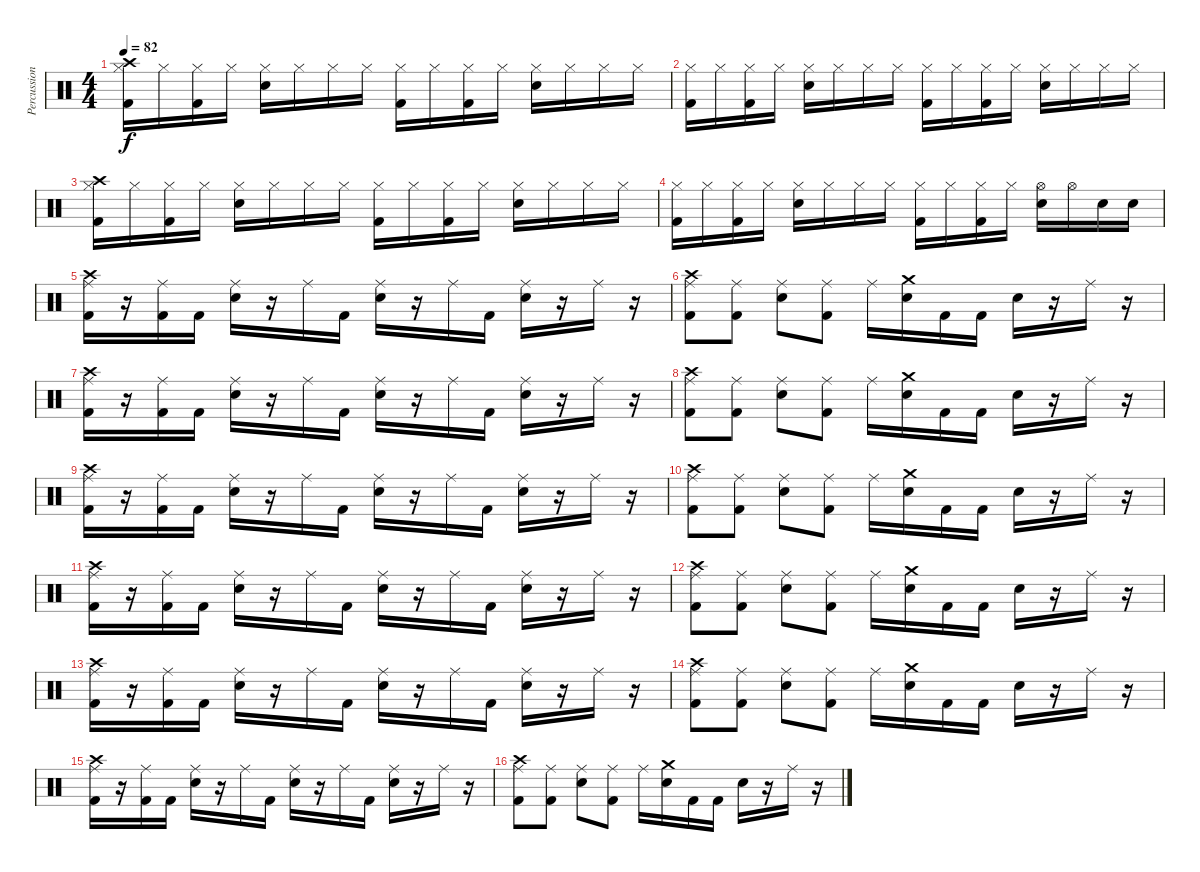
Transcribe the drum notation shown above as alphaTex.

\track ("Percussions" "Percussion") {instrument percussion}
\staff {score}
\articulation defaults
\ts (4 4)
\tempo 82
\clef neutral
\ks c
("Crash high (hit)" "Hi-Hat (closed)" "Kick (hit) 2").16{dy f} "Hi-Hat (closed)".16 ("Hi-Hat (closed)" "Kick (hit) 2").16 "Hi-Hat (closed)".16 ("Hi-Hat (closed)" "Electric Snare (hit)").16 "Hi-Hat (closed)".16 "Hi-Hat (closed)".16 "Hi-Hat (closed)".16 ("Hi-Hat (closed)" "Kick (hit) 2").16 "Hi-Hat (closed)".16 ("Hi-Hat (closed)" "Kick (hit) 2").16 "Hi-Hat (closed)".16 ("Hi-Hat (closed)" "Electric Snare (hit)").16 "Hi-Hat (closed)".16 "Hi-Hat (closed)".16 "Hi-Hat (closed)".16 |
("Hi-Hat (closed)" "Kick (hit) 2").16 "Hi-Hat (closed)".16 ("Hi-Hat (closed)" "Kick (hit) 2").16 "Hi-Hat (closed)".16 ("Hi-Hat (closed)" "Electric Snare (hit)").16 "Hi-Hat (closed)".16 "Hi-Hat (closed)".16 "Hi-Hat (closed)".16 ("Hi-Hat (closed)" "Kick (hit) 2").16 "Hi-Hat (closed)".16 ("Hi-Hat (closed)" "Kick (hit) 2").16 "Hi-Hat (closed)".16 ("Hi-Hat (closed)" "Electric Snare (hit)").16 "Hi-Hat (closed)".16 "Hi-Hat (closed)".16 "Hi-Hat (closed)".16 |
("Crash high (hit)" "Hi-Hat (closed)" "Kick (hit) 2").16 "Hi-Hat (closed)".16 ("Hi-Hat (closed)" "Kick (hit) 2").16 "Hi-Hat (closed)".16 ("Hi-Hat (closed)" "Electric Snare (hit)").16 "Hi-Hat (closed)".16 "Hi-Hat (closed)".16 "Hi-Hat (closed)".16 ("Hi-Hat (closed)" "Kick (hit) 2").16 "Hi-Hat (closed)".16 ("Hi-Hat (closed)" "Kick (hit) 2").16 "Hi-Hat (closed)".16 ("Hi-Hat (closed)" "Electric Snare (hit)").16 "Hi-Hat (closed)".16 "Hi-Hat (closed)".16 "Hi-Hat (closed)".16 |
("Hi-Hat (closed)" "Kick (hit) 2").16 "Hi-Hat (closed)".16 ("Hi-Hat (closed)" "Kick (hit) 2").16 "Hi-Hat (closed)".16 ("Hi-Hat (closed)" "Electric Snare (hit)").16 "Hi-Hat (closed)".16 "Hi-Hat (closed)".16 "Hi-Hat (closed)".16 ("Hi-Hat (closed)" "Kick (hit) 2").16 "Hi-Hat (closed)".16 ("Hi-Hat (closed)" "Kick (hit) 2").16 "Hi-Hat (closed)".16 ("Hi-Hat (open)" "Electric Snare (hit)").16 "Hi-Hat (open)".16 "Electric Snare (hit)".16 "Electric Snare (hit)".16 |
("Crash high (hit)" "Ride (middle)" "Kick (hit) 2").16 r.16 ("Ride (middle)" "Kick (hit) 2").16 "Kick (hit) 2".16 ("Ride (middle)" "Electric Snare (hit)").16 r.16 "Ride (middle)".16 "Kick (hit) 2".16 ("Ride (middle)" "Electric Snare (hit)").16 r.16 "Ride (middle)".16 "Kick (hit) 2".16 ("Ride (middle)" "Electric Snare (hit)").16 r.16 "Ride (middle)".16 r.16 |
("Crash high (hit)" "Ride (middle)" "Kick (hit) 2").8 ("Ride (middle)" "Kick (hit) 2").8 ("Ride (middle)" "Electric Snare (hit)").8 ("Ride (middle)" "Kick (hit) 2").8 "Ride (middle)".16 ("Crash medium (hit)" "Electric Snare (hit)").16 "Kick (hit) 2".16 "Kick (hit) 2".16 "Electric Snare (hit)".16 r.16 "Ride (middle)".16 r.16 |
("Crash high (hit)" "Ride (middle)" "Kick (hit) 2").16 r.16 ("Ride (middle)" "Kick (hit) 2").16 "Kick (hit) 2".16 ("Ride (middle)" "Electric Snare (hit)").16 r.16 "Ride (middle)".16 "Kick (hit) 2".16 ("Ride (middle)" "Electric Snare (hit)").16 r.16 "Ride (middle)".16 "Kick (hit) 2".16 ("Ride (middle)" "Electric Snare (hit)").16 r.16 "Ride (middle)".16 r.16 |
("Crash high (hit)" "Ride (middle)" "Kick (hit) 2").8 ("Ride (middle)" "Kick (hit) 2").8 ("Ride (middle)" "Electric Snare (hit)").8 ("Ride (middle)" "Kick (hit) 2").8 "Ride (middle)".16 ("Crash medium (hit)" "Electric Snare (hit)").16 "Kick (hit) 2".16 "Kick (hit) 2".16 "Electric Snare (hit)".16 r.16 "Ride (middle)".16 r.16 |
("Crash high (hit)" "Ride (middle)" "Kick (hit) 2").16 r.16 ("Ride (middle)" "Kick (hit) 2").16 "Kick (hit) 2".16 ("Ride (middle)" "Electric Snare (hit)").16 r.16 "Ride (middle)".16 "Kick (hit) 2".16 ("Ride (middle)" "Electric Snare (hit)").16 r.16 "Ride (middle)".16 "Kick (hit) 2".16 ("Ride (middle)" "Electric Snare (hit)").16 r.16 "Ride (middle)".16 r.16 |
("Crash high (hit)" "Ride (middle)" "Kick (hit) 2").8 ("Ride (middle)" "Kick (hit) 2").8 ("Ride (middle)" "Electric Snare (hit)").8 ("Ride (middle)" "Kick (hit) 2").8 "Ride (middle)".16 ("Crash medium (hit)" "Electric Snare (hit)").16 "Kick (hit) 2".16 "Kick (hit) 2".16 "Electric Snare (hit)".16 r.16 "Ride (middle)".16 r.16 |
("Crash high (hit)" "Ride (middle)" "Kick (hit) 2").16 r.16 ("Ride (middle)" "Kick (hit) 2").16 "Kick (hit) 2".16 ("Ride (middle)" "Electric Snare (hit)").16 r.16 "Ride (middle)".16 "Kick (hit) 2".16 ("Ride (middle)" "Electric Snare (hit)").16 r.16 "Ride (middle)".16 "Kick (hit) 2".16 ("Ride (middle)" "Electric Snare (hit)").16 r.16 "Ride (middle)".16 r.16 |
("Crash high (hit)" "Ride (middle)" "Kick (hit) 2").8 ("Ride (middle)" "Kick (hit) 2").8 ("Ride (middle)" "Electric Snare (hit)").8 ("Ride (middle)" "Kick (hit) 2").8 "Ride (middle)".16 ("Crash medium (hit)" "Electric Snare (hit)").16 "Kick (hit) 2".16 "Kick (hit) 2".16 "Electric Snare (hit)".16 r.16 "Ride (middle)".16 r.16 |
("Crash high (hit)" "Ride (middle)" "Kick (hit) 2").16 r.16 ("Ride (middle)" "Kick (hit) 2").16 "Kick (hit) 2".16 ("Ride (middle)" "Electric Snare (hit)").16 r.16 "Ride (middle)".16 "Kick (hit) 2".16 ("Ride (middle)" "Electric Snare (hit)").16 r.16 "Ride (middle)".16 "Kick (hit) 2".16 ("Ride (middle)" "Electric Snare (hit)").16 r.16 "Ride (middle)".16 r.16 |
("Crash high (hit)" "Ride (middle)" "Kick (hit) 2").8 ("Ride (middle)" "Kick (hit) 2").8 ("Ride (middle)" "Electric Snare (hit)").8 ("Ride (middle)" "Kick (hit) 2").8 "Ride (middle)".16 ("Crash medium (hit)" "Electric Snare (hit)").16 "Kick (hit) 2".16 "Kick (hit) 2".16 "Electric Snare (hit)".16 r.16 "Ride (middle)".16 r.16 |
("Crash high (hit)" "Ride (middle)" "Kick (hit) 2").16 r.16 ("Ride (middle)" "Kick (hit) 2").16 "Kick (hit) 2".16 ("Ride (middle)" "Electric Snare (hit)").16 r.16 "Ride (middle)".16 "Kick (hit) 2".16 ("Ride (middle)" "Electric Snare (hit)").16 r.16 "Ride (middle)".16 "Kick (hit) 2".16 ("Ride (middle)" "Electric Snare (hit)").16 r.16 "Ride (middle)".16 r.16 |
("Crash high (hit)" "Ride (middle)" "Kick (hit) 2").8 ("Ride (middle)" "Kick (hit) 2").8 ("Ride (middle)" "Electric Snare (hit)").8 ("Ride (middle)" "Kick (hit) 2").8 "Ride (middle)".16 ("Crash medium (hit)" "Electric Snare (hit)").16 "Kick (hit) 2".16 "Kick (hit) 2".16 "Electric Snare (hit)".16 r.16 "Ride (middle)".16 r.16
